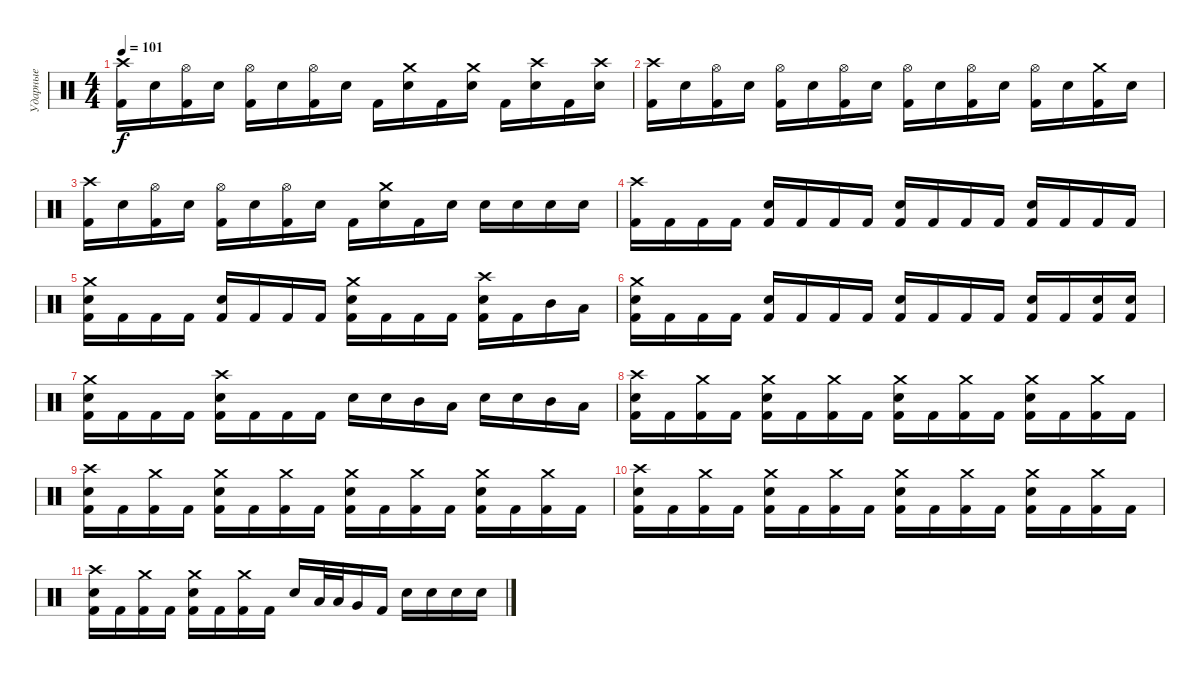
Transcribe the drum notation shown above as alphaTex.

\track ("Ударные" "Ударные") {instrument percussion}
\staff {score}
\articulation defaults
\ts (4 4)
\tempo 101
\clef neutral
\ks c
("Crash high (hit)" "Kick (hit) 2").16{dy f} "Electric Snare (hit)".16 ("Hi-Hat (open)" "Kick (hit) 2").16 "Electric Snare (hit)".16 ("Hi-Hat (open)" "Kick (hit) 2").16 "Electric Snare (hit)".16 ("Hi-Hat (open)" "Kick (hit) 2").16 "Electric Snare (hit)".16 "Kick (hit) 2".16 ("Crash medium (hit)" "Electric Snare (hit)").16 "Kick (hit) 2".16 ("Crash medium (hit)" "Electric Snare (hit)").16 "Kick (hit) 2".16 ("Crash high (hit)" "Electric Snare (hit)").16 "Kick (hit) 2".16 ("Crash high (hit)" "Electric Snare (hit)").16 |
("Crash high (hit)" "Kick (hit) 2").16 "Electric Snare (hit)".16 ("Hi-Hat (open)" "Kick (hit) 2").16 "Electric Snare (hit)".16 ("Hi-Hat (open)" "Kick (hit) 2").16 "Electric Snare (hit)".16 ("Hi-Hat (open)" "Kick (hit) 2").16 "Electric Snare (hit)".16 ("Hi-Hat (open)" "Kick (hit) 2").16 "Electric Snare (hit)".16 ("Hi-Hat (open)" "Kick (hit) 2").16 "Electric Snare (hit)".16 ("Hi-Hat (open)" "Kick (hit) 2").16 "Electric Snare (hit)".16 ("Crash medium (hit)" "Kick (hit) 2").16 "Electric Snare (hit)".16 |
("Crash high (hit)" "Kick (hit) 2").16 "Electric Snare (hit)".16 ("Hi-Hat (open)" "Kick (hit) 2").16 "Electric Snare (hit)".16 ("Hi-Hat (open)" "Kick (hit) 2").16 "Electric Snare (hit)".16 ("Hi-Hat (open)" "Kick (hit) 2").16 "Electric Snare (hit)".16 "Kick (hit) 2".16 ("Crash medium (hit)" "Electric Snare (hit)").16 "Kick (hit) 2".16 "Electric Snare (hit)".16 "Electric Snare (hit)".16 "Electric Snare (hit)".16 "Electric Snare (hit)".16 "Electric Snare (hit)".16 |
("Crash high (hit)" "Kick (hit) 2").16 "Kick (hit) 2".16 "Kick (hit) 2".16 "Kick (hit) 2".16 ("Electric Snare (hit)" "Kick (hit) 2").16 "Kick (hit) 2".16 "Kick (hit) 2".16 "Kick (hit) 2".16 ("Electric Snare (hit)" "Kick (hit) 2").16 "Kick (hit) 2".16 "Kick (hit) 2".16 "Kick (hit) 2".16 ("Electric Snare (hit)" "Kick (hit) 2").16 "Kick (hit) 2".16 "Kick (hit) 2".16 "Kick (hit) 2".16 |
("Crash medium (hit)" "Electric Snare (hit)" "Kick (hit) 2").16 "Kick (hit) 2".16 "Kick (hit) 2".16 "Kick (hit) 2".16 ("Electric Snare (hit)" "Kick (hit) 2").16 "Kick (hit) 2".16 "Kick (hit) 2".16 "Kick (hit) 2".16 ("Crash medium (hit)" "Electric Snare (hit)" "Kick (hit) 2").16 "Kick (hit) 2".16 "Kick (hit) 2".16 "Kick (hit) 2".16 ("Crash high (hit)" "Electric Snare (hit)" "Kick (hit) 2").16 "Kick (hit) 2".16 "Mid Tom (hit)".16 "Low Tom (hit)".16 |
("Crash medium (hit)" "Electric Snare (hit)" "Kick (hit) 2").16 "Kick (hit) 2".16 "Kick (hit) 2".16 "Kick (hit) 2".16 ("Electric Snare (hit)" "Kick (hit) 2").16 "Kick (hit) 2".16 "Kick (hit) 2".16 "Kick (hit) 2".16 ("Electric Snare (hit)" "Kick (hit) 2").16 "Kick (hit) 2".16 "Kick (hit) 2".16 "Kick (hit) 2".16 ("Electric Snare (hit)" "Kick (hit) 2").16 "Kick (hit) 2".16 ("Electric Snare (hit)" "Kick (hit) 2").16 ("Electric Snare (hit)" "Kick (hit) 2").16 |
("Crash medium (hit)" "Electric Snare (hit)" "Kick (hit) 2").16 "Kick (hit) 2".16 "Kick (hit) 2".16 "Kick (hit) 2".16 ("Crash high (hit)" "Electric Snare (hit)" "Kick (hit) 2").16 "Kick (hit) 2".16 "Kick (hit) 2".16 "Kick (hit) 2".16 "Electric Snare (hit)".16 "Electric Snare (hit)".16 "Mid Tom (hit)".16 "Low Tom (hit)".16 "Electric Snare (hit)".16 "Electric Snare (hit)".16 "Mid Tom (hit)".16 "Low Tom (hit)".16 |
("Crash high (hit)" "Electric Snare (hit)" "Kick (hit) 2").16 "Kick (hit) 2".16 ("Crash medium (hit)" "Kick (hit) 2").16 "Kick (hit) 2".16 ("Crash medium (hit)" "Electric Snare (hit)" "Kick (hit) 2").16 "Kick (hit) 2".16 ("Crash medium (hit)" "Kick (hit) 2").16 "Kick (hit) 2".16 ("Crash medium (hit)" "Electric Snare (hit)" "Kick (hit) 2").16 "Kick (hit) 2".16 ("Crash medium (hit)" "Kick (hit) 2").16 "Kick (hit) 2".16 ("Crash medium (hit)" "Electric Snare (hit)" "Kick (hit) 2").16 "Kick (hit) 2".16 ("Crash medium (hit)" "Kick (hit) 2").16 "Kick (hit) 2".16 |
("Crash high (hit)" "Electric Snare (hit)" "Kick (hit) 2").16 "Kick (hit) 2".16 ("Crash medium (hit)" "Kick (hit) 2").16 "Kick (hit) 2".16 ("Crash medium (hit)" "Electric Snare (hit)" "Kick (hit) 2").16 "Kick (hit) 2".16 ("Crash medium (hit)" "Kick (hit) 2").16 "Kick (hit) 2".16 ("Crash medium (hit)" "Electric Snare (hit)" "Kick (hit) 2").16 "Kick (hit) 2".16 ("Crash medium (hit)" "Kick (hit) 2").16 "Kick (hit) 2".16 ("Crash medium (hit)" "Electric Snare (hit)" "Kick (hit) 2").16 "Kick (hit) 2".16 ("Crash medium (hit)" "Kick (hit) 2").16 "Kick (hit) 2".16 |
("Crash high (hit)" "Electric Snare (hit)" "Kick (hit) 2").16 "Kick (hit) 2".16 ("Crash medium (hit)" "Kick (hit) 2").16 "Kick (hit) 2".16 ("Crash medium (hit)" "Electric Snare (hit)" "Kick (hit) 2").16 "Kick (hit) 2".16 ("Crash medium (hit)" "Kick (hit) 2").16 "Kick (hit) 2".16 ("Crash medium (hit)" "Electric Snare (hit)" "Kick (hit) 2").16 "Kick (hit) 2".16 ("Crash medium (hit)" "Kick (hit) 2").16 "Kick (hit) 2".16 ("Crash medium (hit)" "Electric Snare (hit)" "Kick (hit) 2").16 "Kick (hit) 2".16 ("Crash medium (hit)" "Kick (hit) 2").16 "Kick (hit) 2".16 |
("Crash high (hit)" "Electric Snare (hit)" "Kick (hit) 2").16 "Kick (hit) 2".16 ("Crash medium (hit)" "Kick (hit) 2").16 "Kick (hit) 2".16 ("Crash medium (hit)" "Electric Snare (hit)" "Kick (hit) 2").16 "Kick (hit) 2".16 ("Crash medium (hit)" "Kick (hit) 2").16 "Kick (hit) 2".16 "Electric Snare (hit)".16 "Low Tom (hit)".32 "Low Tom (hit)".32 "Very Low Tom (hit)".16 "Kick (hit) 2".16 "Electric Snare (hit)".16 "Electric Snare (hit)".16 "Electric Snare (hit)".16 "Electric Snare (hit)".16
